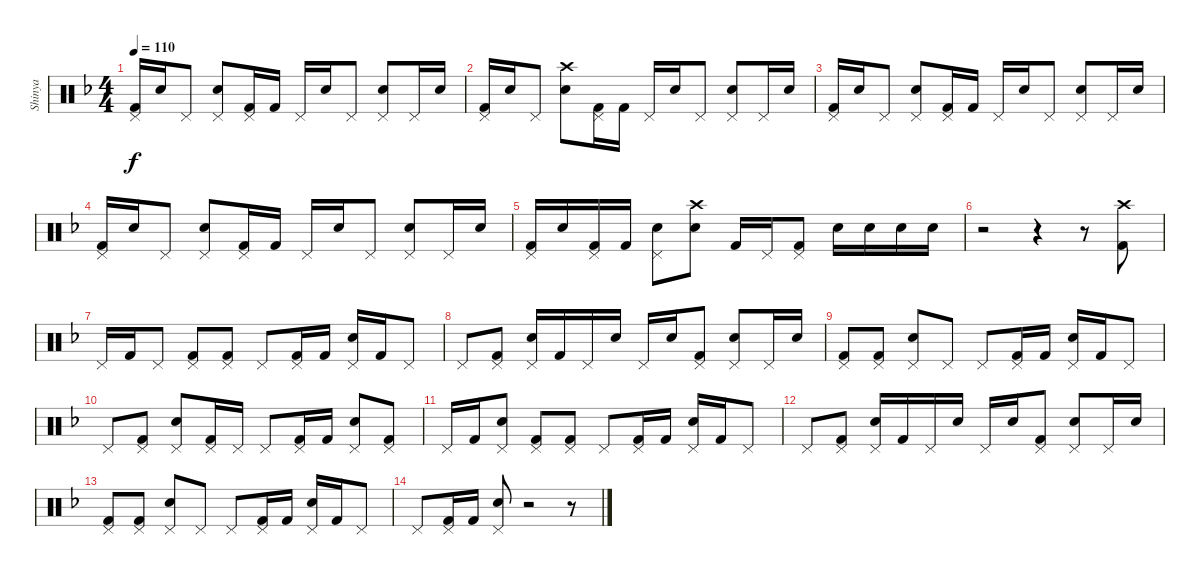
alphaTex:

\track ("Shinya" "Shinya") {instrument percussion}
\staff {score}
\articulation defaults
\ts (4 4)
\tempo 110
\clef neutral
\ks f
("Pedal Hi-Hat (hit)" "Kick (hit) 2").16{dy f} "Electric Snare (hit)".16 "Pedal Hi-Hat (hit)".8 ("Pedal Hi-Hat (hit)" "Electric Snare (hit)").8 ("Pedal Hi-Hat (hit)" "Kick (hit) 2").16 "Kick (hit) 2".16 "Pedal Hi-Hat (hit)".16 "Electric Snare (hit)".16 "Pedal Hi-Hat (hit)".8 ("Pedal Hi-Hat (hit)" "Electric Snare (hit)").8 "Pedal Hi-Hat (hit)".16 "Electric Snare (hit)".16 |
("Pedal Hi-Hat (hit)" "Kick (hit) 2").16 "Electric Snare (hit)".16 "Pedal Hi-Hat (hit)".8 ("Crash high (hit)" "Electric Snare (hit)").8 ("Pedal Hi-Hat (hit)" "Kick (hit) 2").16 "Kick (hit) 2".16 "Pedal Hi-Hat (hit)".16 "Electric Snare (hit)".16 "Pedal Hi-Hat (hit)".8 ("Pedal Hi-Hat (hit)" "Electric Snare (hit)").8 "Pedal Hi-Hat (hit)".16 "Electric Snare (hit)".16 |
("Pedal Hi-Hat (hit)" "Kick (hit) 2").16 "Electric Snare (hit)".16 "Pedal Hi-Hat (hit)".8 ("Pedal Hi-Hat (hit)" "Electric Snare (hit)").8 ("Pedal Hi-Hat (hit)" "Kick (hit) 2").16 "Kick (hit) 2".16 "Pedal Hi-Hat (hit)".16 "Electric Snare (hit)".16 "Pedal Hi-Hat (hit)".8 ("Pedal Hi-Hat (hit)" "Electric Snare (hit)").8 "Pedal Hi-Hat (hit)".16 "Electric Snare (hit)".16 |
("Pedal Hi-Hat (hit)" "Kick (hit) 2").16 "Electric Snare (hit)".16 "Pedal Hi-Hat (hit)".8 ("Pedal Hi-Hat (hit)" "Electric Snare (hit)").8 ("Pedal Hi-Hat (hit)" "Kick (hit) 2").16 "Kick (hit) 2".16 "Pedal Hi-Hat (hit)".16 "Electric Snare (hit)".16 "Pedal Hi-Hat (hit)".8 ("Pedal Hi-Hat (hit)" "Electric Snare (hit)").8 "Pedal Hi-Hat (hit)".16 "Electric Snare (hit)".16 |
("Pedal Hi-Hat (hit)" "Kick (hit) 2").16 "Electric Snare (hit)".16 ("Pedal Hi-Hat (hit)" "Kick (hit) 2").16 "Kick (hit) 2".16 ("Pedal Hi-Hat (hit)" "Electric Snare (hit)").8 ("Crash high (hit)" "Electric Snare (hit)").8 "Kick (hit) 2".16 "Pedal Hi-Hat (hit)".16 ("Pedal Hi-Hat (hit)" "Kick (hit) 2").8 "Electric Snare (hit)".16 "Electric Snare (hit)".16 "Electric Snare (hit)".16 "Electric Snare (hit)".16 |
r.2 r.4 r.8 ("Crash high (hit)" "Kick (hit) 2").8 |
"Pedal Hi-Hat (hit)".16 "Kick (hit) 2".16 "Pedal Hi-Hat (hit)".8 ("Pedal Hi-Hat (hit)" "Kick (hit) 2").8 ("Pedal Hi-Hat (hit)" "Kick (hit) 2").8 "Pedal Hi-Hat (hit)".8 ("Pedal Hi-Hat (hit)" "Kick (hit) 2").16 "Kick (hit) 2".16 ("Pedal Hi-Hat (hit)" "Electric Snare (hit)").16 "Kick (hit) 2".16 "Pedal Hi-Hat (hit)".8 |
"Pedal Hi-Hat (hit)".8 ("Pedal Hi-Hat (hit)" "Kick (hit) 2").8 ("Pedal Hi-Hat (hit)" "Electric Snare (hit)").16 "Kick (hit) 2".16 "Pedal Hi-Hat (hit)".16 "Electric Snare (hit)".16 "Pedal Hi-Hat (hit)".16 "Electric Snare (hit)".16 ("Pedal Hi-Hat (hit)" "Kick (hit) 2").8 ("Pedal Hi-Hat (hit)" "Electric Snare (hit)").8 "Pedal Hi-Hat (hit)".16 "Electric Snare (hit)".16 |
("Pedal Hi-Hat (hit)" "Kick (hit) 2").8 ("Pedal Hi-Hat (hit)" "Kick (hit) 2").8 ("Pedal Hi-Hat (hit)" "Electric Snare (hit)").8 "Pedal Hi-Hat (hit)".8 "Pedal Hi-Hat (hit)".8 ("Pedal Hi-Hat (hit)" "Kick (hit) 2").16 "Kick (hit) 2".16 ("Pedal Hi-Hat (hit)" "Electric Snare (hit)").16 "Kick (hit) 2".16 "Pedal Hi-Hat (hit)".8 |
"Pedal Hi-Hat (hit)".8 ("Pedal Hi-Hat (hit)" "Kick (hit) 2").8 ("Pedal Hi-Hat (hit)" "Electric Snare (hit)").8 ("Pedal Hi-Hat (hit)" "Kick (hit) 2").16 "Pedal Hi-Hat (hit)".16 "Pedal Hi-Hat (hit)".8 ("Pedal Hi-Hat (hit)" "Kick (hit) 2").16 "Kick (hit) 2".16 ("Pedal Hi-Hat (hit)" "Electric Snare (hit)").8 ("Pedal Hi-Hat (hit)" "Kick (hit) 2").8 |
"Pedal Hi-Hat (hit)".16 "Kick (hit) 2".16 ("Pedal Hi-Hat (hit)" "Electric Snare (hit)").8 ("Pedal Hi-Hat (hit)" "Kick (hit) 2").8 ("Pedal Hi-Hat (hit)" "Kick (hit) 2").8 "Pedal Hi-Hat (hit)".8 ("Pedal Hi-Hat (hit)" "Kick (hit) 2").16 "Kick (hit) 2".16 ("Pedal Hi-Hat (hit)" "Electric Snare (hit)").16 "Kick (hit) 2".16 "Pedal Hi-Hat (hit)".8 |
"Pedal Hi-Hat (hit)".8 ("Pedal Hi-Hat (hit)" "Kick (hit) 2").8 ("Pedal Hi-Hat (hit)" "Electric Snare (hit)").16 "Kick (hit) 2".16 "Pedal Hi-Hat (hit)".16 "Electric Snare (hit)".16 "Pedal Hi-Hat (hit)".16 "Electric Snare (hit)".16 ("Pedal Hi-Hat (hit)" "Kick (hit) 2").8 ("Pedal Hi-Hat (hit)" "Electric Snare (hit)").8 "Pedal Hi-Hat (hit)".16 "Electric Snare (hit)".16 |
("Pedal Hi-Hat (hit)" "Kick (hit) 2").8 ("Pedal Hi-Hat (hit)" "Kick (hit) 2").8 ("Pedal Hi-Hat (hit)" "Electric Snare (hit)").8 "Pedal Hi-Hat (hit)".8 "Pedal Hi-Hat (hit)".8 ("Pedal Hi-Hat (hit)" "Kick (hit) 2").16 "Kick (hit) 2".16 ("Pedal Hi-Hat (hit)" "Electric Snare (hit)").16 "Kick (hit) 2".16 "Pedal Hi-Hat (hit)".8 |
"Pedal Hi-Hat (hit)".8 ("Pedal Hi-Hat (hit)" "Kick (hit) 2").16 "Kick (hit) 2".16 ("Pedal Hi-Hat (hit)" "Electric Snare (hit)").8 r.2 r.8
